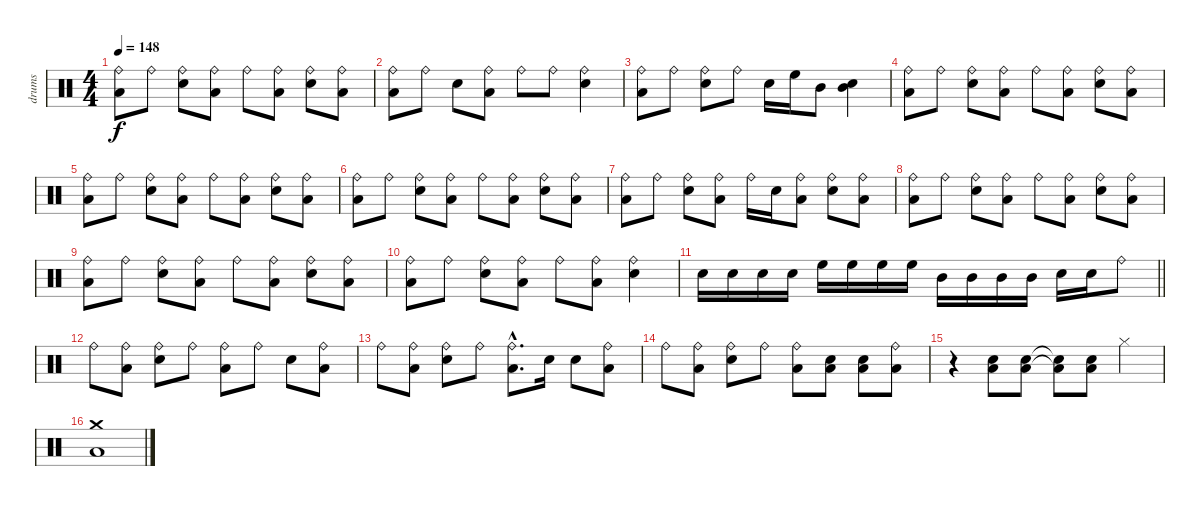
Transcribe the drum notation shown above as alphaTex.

\track ("drums" "drums") {instrument percussion}
\staff {score}
\articulation defaults
\ts (4 4)
\tempo 148
\clef neutral
\ks c
("Ride (bell)" "Low Floor Tom (hit)").8{dy f} "Ride (bell)".8 ("Ride (bell)" "Electric Snare (hit)").8 ("Ride (bell)" "Low Floor Tom (hit)").8 "Ride (bell)".8 ("Ride (bell)" "Low Floor Tom (hit)").8 ("Ride (bell)" "Electric Snare (hit)").8 ("Ride (bell)" "Low Floor Tom (hit)").8 |
("Ride (bell)" "Low Floor Tom (hit)").8 "Ride (bell)".8 "Electric Snare (hit)".8 ("Ride (bell)" "Low Floor Tom (hit)").8 "Ride (bell)".8 "Ride (bell)".8 ("Ride (bell)" "Electric Snare (hit)").4 |
("Ride (bell)" "Low Floor Tom (hit)").8 "Ride (bell)".8 ("Ride (bell)" "Electric Snare (hit)").8 "Ride (bell)".8 "Electric Snare (hit)".16 "High Floor Tom (hit)".16 "Mid Tom (hit)".8 ("Mid Tom (hit)" "Snare (hit) 2").4 |
("Ride (bell)" "Low Floor Tom (hit)").8 "Ride (bell)".8 ("Ride (bell)" "Electric Snare (hit)").8 ("Ride (bell)" "Low Floor Tom (hit)").8 "Ride (bell)".8 ("Ride (bell)" "Low Floor Tom (hit)").8 ("Ride (bell)" "Electric Snare (hit)").8 ("Ride (bell)" "Low Floor Tom (hit)").8 |
("Ride (bell)" "Low Floor Tom (hit)").8 "Ride (bell)".8 ("Ride (bell)" "Electric Snare (hit)").8 ("Ride (bell)" "Low Floor Tom (hit)").8 "Ride (bell)".8 ("Ride (bell)" "Low Floor Tom (hit)").8 ("Ride (bell)" "Electric Snare (hit)").8 ("Ride (bell)" "Low Floor Tom (hit)").8 |
("Ride (bell)" "Low Floor Tom (hit)").8 "Ride (bell)".8 ("Ride (bell)" "Electric Snare (hit)").8 ("Ride (bell)" "Low Floor Tom (hit)").8 "Ride (bell)".8 ("Ride (bell)" "Low Floor Tom (hit)").8 ("Ride (bell)" "Electric Snare (hit)").8 ("Ride (bell)" "Low Floor Tom (hit)").8 |
("Ride (bell)" "Low Floor Tom (hit)").8 "Ride (bell)".8 ("Ride (bell)" "Electric Snare (hit)").8 ("Ride (bell)" "Low Floor Tom (hit)").8 "Ride (bell)".16 "Electric Snare (hit)".16 ("Ride (bell)" "Low Floor Tom (hit)").8 ("Ride (bell)" "Electric Snare (hit)").8 ("Ride (bell)" "Low Floor Tom (hit)").8 |
("Ride (bell)" "Low Floor Tom (hit)").8 "Ride (bell)".8 ("Ride (bell)" "Electric Snare (hit)").8 ("Ride (bell)" "Low Floor Tom (hit)").8 "Ride (bell)".8 ("Ride (bell)" "Low Floor Tom (hit)").8 ("Ride (bell)" "Electric Snare (hit)").8 ("Ride (bell)" "Low Floor Tom (hit)").8 |
("Ride (bell)" "Low Floor Tom (hit)").8 "Ride (bell)".8 ("Ride (bell)" "Electric Snare (hit)").8 ("Ride (bell)" "Low Floor Tom (hit)").8 "Ride (bell)".8 ("Ride (bell)" "Low Floor Tom (hit)").8 ("Ride (bell)" "Electric Snare (hit)").8 ("Ride (bell)" "Low Floor Tom (hit)").8 |
("Ride (bell)" "Low Floor Tom (hit)").8 "Ride (bell)".8 ("Ride (bell)" "Electric Snare (hit)").8 ("Ride (bell)" "Low Floor Tom (hit)").8 "Ride (bell)".8 ("Ride (bell)" "Low Floor Tom (hit)").8 ("Ride (bell)" "Electric Snare (hit)").4 |
\barLineRight lightlight "Electric Snare (hit)".16 "Electric Snare (hit)".16 "Electric Snare (hit)".16 "Electric Snare (hit)".16 "High Floor Tom (hit)".16 "High Floor Tom (hit)".16 "High Floor Tom (hit)".16 "High Floor Tom (hit)".16 "Mid Tom (hit)".16 "Mid Tom (hit)".16 "Mid Tom (hit)".16 "Mid Tom (hit)".16 "Electric Snare (hit)".16 "Electric Snare (hit)".16 "Ride (bell)".8
|
"Ride (bell)".8 ("Ride (bell)" "Low Floor Tom (hit)").8 ("Ride (bell)" "Electric Snare (hit)").8 "Ride (bell)".8 ("Ride (bell)" "Low Floor Tom (hit)").8 "Ride (bell)".8 "Electric Snare (hit)".8 ("Ride (bell)" "Low Floor Tom (hit)").8 |
"Ride (bell)".8 ("Ride (bell)" "Low Floor Tom (hit)").8 ("Ride (bell)" "Electric Snare (hit)").8 "Ride (bell)".8 ("Ride (bell)"{hac} "Low Floor Tom (hit)"{hac}).8{d} "Electric Snare (hit)".16 "Electric Snare (hit)".8 ("Ride (bell)" "Low Floor Tom (hit)").8 |
"Ride (bell)".8 ("Ride (bell)" "Low Floor Tom (hit)").8 ("Ride (bell)" "Electric Snare (hit)").8 "Ride (bell)".8 ("Ride (bell)" "Low Floor Tom (hit)").8 ("Low Tom (hit)" "Snare (hit) 2").8 ("Low Tom (hit)" "Snare (hit) 2").8 ("Ride (bell)" "Low Floor Tom (hit)").8 |
r.4 ("Low Tom (hit)" "Snare (hit) 2").8 ("Low Tom (hit)" "Snare (hit) 2").8 ("Low Tom (hit)"{t} "Snare (hit) 2"{t}).8 ("Low Tom (hit)" "Snare (hit) 2").8 "Hi-Hat (closed)".4 |
("Crash medium (hit)" "Low Floor Tom (hit)").1
